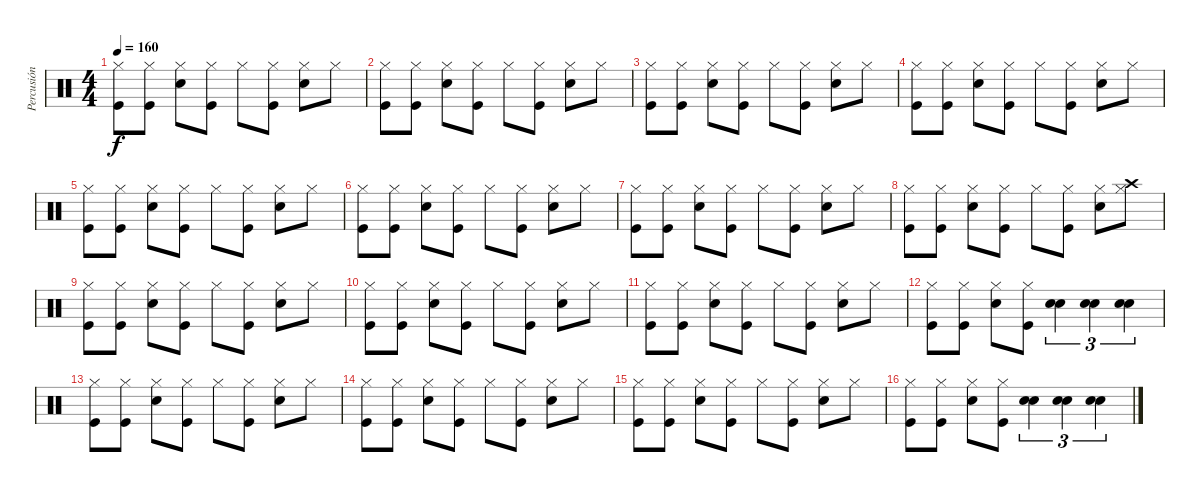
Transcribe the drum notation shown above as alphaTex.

\track ("Percusión" "Percusión") {instrument percussion}
\staff {score}
\articulation defaults
\ts (4 4)
\tempo 160
\clef neutral
\ks c
("Hi-Hat (closed)" "Kick (hit)").8{dy f} ("Hi-Hat (closed)" "Kick (hit)").8 ("Hi-Hat (closed)" "Snare (hit) 2").8 ("Hi-Hat (closed)" "Kick (hit)").8 "Hi-Hat (closed)".8 ("Hi-Hat (closed)" "Kick (hit)").8 ("Hi-Hat (closed)" "Snare (hit) 2").8 "Hi-Hat (closed)".8 |
("Hi-Hat (closed)" "Kick (hit)").8 ("Hi-Hat (closed)" "Kick (hit)").8 ("Hi-Hat (closed)" "Snare (hit) 2").8 ("Hi-Hat (closed)" "Kick (hit)").8 "Hi-Hat (closed)".8 ("Hi-Hat (closed)" "Kick (hit)").8 ("Hi-Hat (closed)" "Snare (hit) 2").8 "Hi-Hat (closed)".8 |
("Hi-Hat (closed)" "Kick (hit)").8 ("Hi-Hat (closed)" "Kick (hit)").8 ("Hi-Hat (closed)" "Snare (hit) 2").8 ("Hi-Hat (closed)" "Kick (hit)").8 "Hi-Hat (closed)".8 ("Hi-Hat (closed)" "Kick (hit)").8 ("Hi-Hat (closed)" "Snare (hit) 2").8 "Hi-Hat (closed)".8 |
("Hi-Hat (closed)" "Kick (hit)").8 ("Hi-Hat (closed)" "Kick (hit)").8 ("Hi-Hat (closed)" "Snare (hit) 2").8 ("Hi-Hat (closed)" "Kick (hit)").8 "Hi-Hat (closed)".8 ("Hi-Hat (closed)" "Kick (hit)").8 ("Hi-Hat (closed)" "Snare (hit) 2").8 "Hi-Hat (closed)".8 |
("Hi-Hat (closed)" "Kick (hit)").8 ("Hi-Hat (closed)" "Kick (hit)").8 ("Hi-Hat (closed)" "Snare (hit) 2").8 ("Hi-Hat (closed)" "Kick (hit)").8 "Hi-Hat (closed)".8 ("Hi-Hat (closed)" "Kick (hit)").8 ("Hi-Hat (closed)" "Snare (hit) 2").8 "Hi-Hat (closed)".8 |
("Hi-Hat (closed)" "Kick (hit)").8 ("Hi-Hat (closed)" "Kick (hit)").8 ("Hi-Hat (closed)" "Snare (hit) 2").8 ("Hi-Hat (closed)" "Kick (hit)").8 "Hi-Hat (closed)".8 ("Hi-Hat (closed)" "Kick (hit)").8 ("Hi-Hat (closed)" "Snare (hit) 2").8 "Hi-Hat (closed)".8 |
("Hi-Hat (closed)" "Kick (hit)").8 ("Hi-Hat (closed)" "Kick (hit)").8 ("Hi-Hat (closed)" "Snare (hit) 2").8 ("Hi-Hat (closed)" "Kick (hit)").8 "Hi-Hat (closed)".8 ("Hi-Hat (closed)" "Kick (hit)").8 ("Hi-Hat (closed)" "Snare (hit) 2").8 "Hi-Hat (closed)".8 |
("Hi-Hat (closed)" "Kick (hit)").8 ("Hi-Hat (closed)" "Kick (hit)").8 ("Hi-Hat (closed)" "Snare (hit) 2").8 ("Hi-Hat (closed)" "Kick (hit)").8 "Hi-Hat (closed)".8 ("Hi-Hat (closed)" "Kick (hit)").8 ("Hi-Hat (closed)" "Snare (hit) 2").8 ("Hi-Hat (closed)" "Crash high (hit)").8 |
("Hi-Hat (closed)" "Kick (hit)").8 ("Hi-Hat (closed)" "Kick (hit)").8 ("Hi-Hat (closed)" "Snare (hit) 2").8 ("Hi-Hat (closed)" "Kick (hit)").8 "Hi-Hat (closed)".8 ("Hi-Hat (closed)" "Kick (hit)").8 ("Hi-Hat (closed)" "Snare (hit) 2").8 "Hi-Hat (closed)".8 |
("Hi-Hat (closed)" "Kick (hit)").8 ("Hi-Hat (closed)" "Kick (hit)").8 ("Hi-Hat (closed)" "Snare (hit) 2").8 ("Hi-Hat (closed)" "Kick (hit)").8 "Hi-Hat (closed)".8 ("Hi-Hat (closed)" "Kick (hit)").8 ("Hi-Hat (closed)" "Snare (hit) 2").8 "Hi-Hat (closed)".8 |
("Hi-Hat (closed)" "Kick (hit)").8 ("Hi-Hat (closed)" "Kick (hit)").8 ("Hi-Hat (closed)" "Snare (hit) 2").8 ("Hi-Hat (closed)" "Kick (hit)").8 "Hi-Hat (closed)".8 ("Hi-Hat (closed)" "Kick (hit)").8 ("Hi-Hat (closed)" "Snare (hit) 2").8 "Hi-Hat (closed)".8 |
("Hi-Hat (closed)" "Kick (hit)").8 ("Hi-Hat (closed)" "Kick (hit)").8 ("Hi-Hat (closed)" "Snare (hit) 2").8 ("Hi-Hat (closed)" "Kick (hit)").8 ("Snare (hit) 2" "Snare (hit) 2").4{tu (3 2)} ("Snare (hit) 2" "Snare (hit) 2").4{tu (3 2)} ("Snare (hit) 2" "Snare (hit) 2").4{tu (3 2)} |
("Hi-Hat (closed)" "Kick (hit)").8 ("Hi-Hat (closed)" "Kick (hit)").8 ("Hi-Hat (closed)" "Snare (hit) 2").8 ("Hi-Hat (closed)" "Kick (hit)").8 "Hi-Hat (closed)".8 ("Hi-Hat (closed)" "Kick (hit)").8 ("Hi-Hat (closed)" "Snare (hit) 2").8 "Hi-Hat (closed)".8 |
("Hi-Hat (closed)" "Kick (hit)").8 ("Hi-Hat (closed)" "Kick (hit)").8 ("Hi-Hat (closed)" "Snare (hit) 2").8 ("Hi-Hat (closed)" "Kick (hit)").8 "Hi-Hat (closed)".8 ("Hi-Hat (closed)" "Kick (hit)").8 ("Hi-Hat (closed)" "Snare (hit) 2").8 "Hi-Hat (closed)".8 |
("Hi-Hat (closed)" "Kick (hit)").8 ("Hi-Hat (closed)" "Kick (hit)").8 ("Hi-Hat (closed)" "Snare (hit) 2").8 ("Hi-Hat (closed)" "Kick (hit)").8 "Hi-Hat (closed)".8 ("Hi-Hat (closed)" "Kick (hit)").8 ("Hi-Hat (closed)" "Snare (hit) 2").8 "Hi-Hat (closed)".8 |
("Hi-Hat (closed)" "Kick (hit)").8 ("Hi-Hat (closed)" "Kick (hit)").8 ("Hi-Hat (closed)" "Snare (hit) 2").8 ("Hi-Hat (closed)" "Kick (hit)").8 ("Snare (hit) 2" "Snare (hit) 2").4{tu (3 2)} ("Snare (hit) 2" "Snare (hit) 2").4{tu (3 2)} ("Snare (hit) 2" "Snare (hit) 2").4{tu (3 2)}
